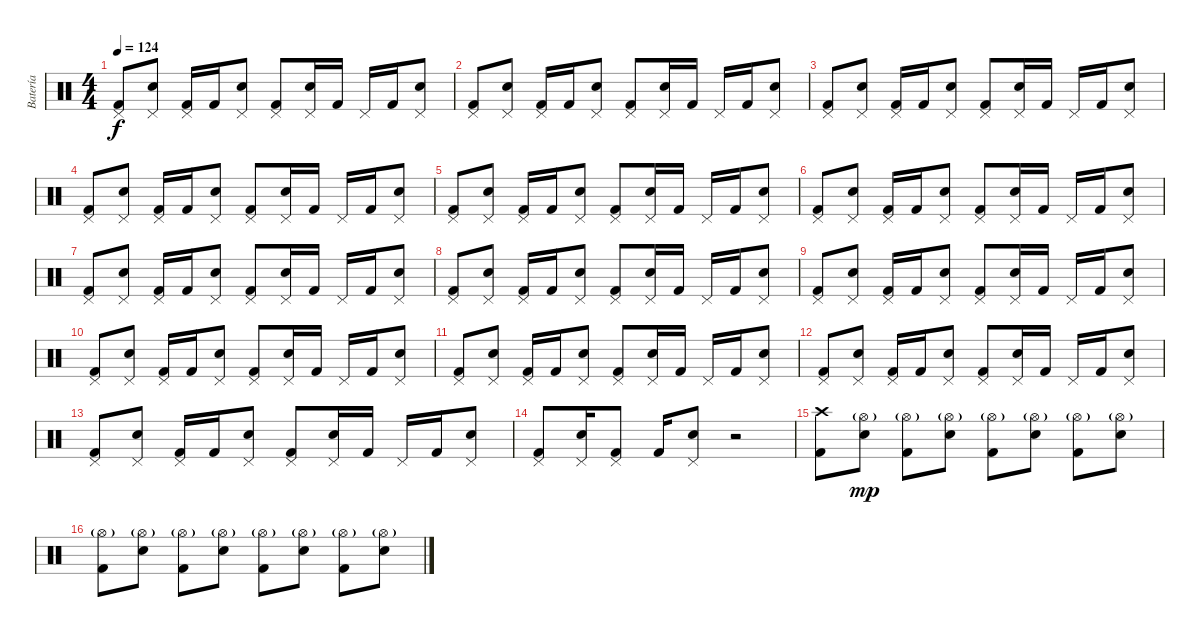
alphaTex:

\track ("Batería" "Batería") {instrument percussion}
\staff {score}
\articulation defaults
\ts (4 4)
\tempo 124
\clef neutral
\ks c
("Pedal Hi-Hat (hit)" "Kick (hit) 2").8{dy f} ("Pedal Hi-Hat (hit)" "Snare (hit) 2").8 ("Pedal Hi-Hat (hit)" "Kick (hit) 2").16 "Kick (hit) 2".16 ("Pedal Hi-Hat (hit)" "Snare (hit) 2").8 ("Pedal Hi-Hat (hit)" "Kick (hit) 2").8 ("Pedal Hi-Hat (hit)" "Snare (hit) 2").16 "Kick (hit) 2".16 "Pedal Hi-Hat (hit)".16 "Kick (hit) 2".16 ("Pedal Hi-Hat (hit)" "Snare (hit) 2").8 |
("Pedal Hi-Hat (hit)" "Kick (hit) 2").8 ("Pedal Hi-Hat (hit)" "Snare (hit) 2").8 ("Pedal Hi-Hat (hit)" "Kick (hit) 2").16 "Kick (hit) 2".16 ("Pedal Hi-Hat (hit)" "Snare (hit) 2").8 ("Pedal Hi-Hat (hit)" "Kick (hit) 2").8 ("Pedal Hi-Hat (hit)" "Snare (hit) 2").16 "Kick (hit) 2".16 "Pedal Hi-Hat (hit)".16 "Kick (hit) 2".16 ("Pedal Hi-Hat (hit)" "Snare (hit) 2").8 |
("Pedal Hi-Hat (hit)" "Kick (hit) 2").8 ("Pedal Hi-Hat (hit)" "Snare (hit) 2").8 ("Pedal Hi-Hat (hit)" "Kick (hit) 2").16 "Kick (hit) 2".16 ("Pedal Hi-Hat (hit)" "Snare (hit) 2").8 ("Pedal Hi-Hat (hit)" "Kick (hit) 2").8 ("Pedal Hi-Hat (hit)" "Snare (hit) 2").16 "Kick (hit) 2".16 "Pedal Hi-Hat (hit)".16 "Kick (hit) 2".16 ("Pedal Hi-Hat (hit)" "Snare (hit) 2").8 |
("Pedal Hi-Hat (hit)" "Kick (hit) 2").8 ("Pedal Hi-Hat (hit)" "Snare (hit) 2").8 ("Pedal Hi-Hat (hit)" "Kick (hit) 2").16 "Kick (hit) 2".16 ("Pedal Hi-Hat (hit)" "Snare (hit) 2").8 ("Pedal Hi-Hat (hit)" "Kick (hit) 2").8 ("Pedal Hi-Hat (hit)" "Snare (hit) 2").16 "Kick (hit) 2".16 "Pedal Hi-Hat (hit)".16 "Kick (hit) 2".16 ("Pedal Hi-Hat (hit)" "Snare (hit) 2").8 |
("Pedal Hi-Hat (hit)" "Kick (hit) 2").8 ("Pedal Hi-Hat (hit)" "Snare (hit) 2").8 ("Pedal Hi-Hat (hit)" "Kick (hit) 2").16 "Kick (hit) 2".16 ("Pedal Hi-Hat (hit)" "Snare (hit) 2").8 ("Pedal Hi-Hat (hit)" "Kick (hit) 2").8 ("Pedal Hi-Hat (hit)" "Snare (hit) 2").16 "Kick (hit) 2".16 "Pedal Hi-Hat (hit)".16 "Kick (hit) 2".16 ("Pedal Hi-Hat (hit)" "Snare (hit) 2").8 |
("Pedal Hi-Hat (hit)" "Kick (hit) 2").8 ("Pedal Hi-Hat (hit)" "Snare (hit) 2").8 ("Pedal Hi-Hat (hit)" "Kick (hit) 2").16 "Kick (hit) 2".16 ("Pedal Hi-Hat (hit)" "Snare (hit) 2").8 ("Pedal Hi-Hat (hit)" "Kick (hit) 2").8 ("Pedal Hi-Hat (hit)" "Snare (hit) 2").16 "Kick (hit) 2".16 "Pedal Hi-Hat (hit)".16 "Kick (hit) 2".16 ("Pedal Hi-Hat (hit)" "Snare (hit) 2").8 |
("Pedal Hi-Hat (hit)" "Kick (hit) 2").8 ("Pedal Hi-Hat (hit)" "Snare (hit) 2").8 ("Pedal Hi-Hat (hit)" "Kick (hit) 2").16 "Kick (hit) 2".16 ("Pedal Hi-Hat (hit)" "Snare (hit) 2").8 ("Pedal Hi-Hat (hit)" "Kick (hit) 2").8 ("Pedal Hi-Hat (hit)" "Snare (hit) 2").16 "Kick (hit) 2".16 "Pedal Hi-Hat (hit)".16 "Kick (hit) 2".16 ("Pedal Hi-Hat (hit)" "Snare (hit) 2").8 |
("Pedal Hi-Hat (hit)" "Kick (hit) 2").8 ("Pedal Hi-Hat (hit)" "Snare (hit) 2").8 ("Pedal Hi-Hat (hit)" "Kick (hit) 2").16 "Kick (hit) 2".16 ("Pedal Hi-Hat (hit)" "Snare (hit) 2").8 ("Pedal Hi-Hat (hit)" "Kick (hit) 2").8 ("Pedal Hi-Hat (hit)" "Snare (hit) 2").16 "Kick (hit) 2".16 "Pedal Hi-Hat (hit)".16 "Kick (hit) 2".16 ("Pedal Hi-Hat (hit)" "Snare (hit) 2").8 |
("Pedal Hi-Hat (hit)" "Kick (hit) 2").8 ("Pedal Hi-Hat (hit)" "Snare (hit) 2").8 ("Pedal Hi-Hat (hit)" "Kick (hit) 2").16 "Kick (hit) 2".16 ("Pedal Hi-Hat (hit)" "Snare (hit) 2").8 ("Pedal Hi-Hat (hit)" "Kick (hit) 2").8 ("Pedal Hi-Hat (hit)" "Snare (hit) 2").16 "Kick (hit) 2".16 "Pedal Hi-Hat (hit)".16 "Kick (hit) 2".16 ("Pedal Hi-Hat (hit)" "Snare (hit) 2").8 |
("Pedal Hi-Hat (hit)" "Kick (hit) 2").8 ("Pedal Hi-Hat (hit)" "Snare (hit) 2").8 ("Pedal Hi-Hat (hit)" "Kick (hit) 2").16 "Kick (hit) 2".16 ("Pedal Hi-Hat (hit)" "Snare (hit) 2").8 ("Pedal Hi-Hat (hit)" "Kick (hit) 2").8 ("Pedal Hi-Hat (hit)" "Snare (hit) 2").16 "Kick (hit) 2".16 "Pedal Hi-Hat (hit)".16 "Kick (hit) 2".16 ("Pedal Hi-Hat (hit)" "Snare (hit) 2").8 |
("Pedal Hi-Hat (hit)" "Kick (hit) 2").8 ("Pedal Hi-Hat (hit)" "Snare (hit) 2").8 ("Pedal Hi-Hat (hit)" "Kick (hit) 2").16 "Kick (hit) 2".16 ("Pedal Hi-Hat (hit)" "Snare (hit) 2").8 ("Pedal Hi-Hat (hit)" "Kick (hit) 2").8 ("Pedal Hi-Hat (hit)" "Snare (hit) 2").16 "Kick (hit) 2".16 "Pedal Hi-Hat (hit)".16 "Kick (hit) 2".16 ("Pedal Hi-Hat (hit)" "Snare (hit) 2").8 |
("Pedal Hi-Hat (hit)" "Kick (hit) 2").8 ("Pedal Hi-Hat (hit)" "Snare (hit) 2").8 ("Pedal Hi-Hat (hit)" "Kick (hit) 2").16 "Kick (hit) 2".16 ("Pedal Hi-Hat (hit)" "Snare (hit) 2").8 ("Pedal Hi-Hat (hit)" "Kick (hit) 2").8 ("Pedal Hi-Hat (hit)" "Snare (hit) 2").16 "Kick (hit) 2".16 "Pedal Hi-Hat (hit)".16 "Kick (hit) 2".16 ("Pedal Hi-Hat (hit)" "Snare (hit) 2").8 |
("Pedal Hi-Hat (hit)" "Kick (hit) 2").8 ("Pedal Hi-Hat (hit)" "Snare (hit) 2").8 ("Pedal Hi-Hat (hit)" "Kick (hit) 2").16 "Kick (hit) 2".16 ("Pedal Hi-Hat (hit)" "Snare (hit) 2").8 ("Pedal Hi-Hat (hit)" "Kick (hit) 2").8 ("Pedal Hi-Hat (hit)" "Snare (hit) 2").16 "Kick (hit) 2".16 "Pedal Hi-Hat (hit)".16 "Kick (hit) 2".16 ("Pedal Hi-Hat (hit)" "Snare (hit) 2").8 |
("Pedal Hi-Hat (hit)" "Kick (hit) 2").8 ("Pedal Hi-Hat (hit)" "Snare (hit) 2").16 ("Pedal Hi-Hat (hit)" "Kick (hit) 2").8 "Kick (hit) 2".16 ("Pedal Hi-Hat (hit)" "Snare (hit) 2").8 r.2 |
("Crash high (hit)" "Kick (hit) 2").8 ("Hi-Hat (open)"{g} "Snare (hit) 2").8{dy mp} ("Hi-Hat (open)"{g} "Kick (hit) 2").8 ("Hi-Hat (open)"{g} "Snare (hit) 2").8 ("Hi-Hat (open)"{g} "Kick (hit) 2").8 ("Hi-Hat (open)"{g} "Snare (hit) 2").8 ("Hi-Hat (open)"{g} "Kick (hit) 2").8 ("Hi-Hat (open)"{g} "Snare (hit) 2").8 |
("Hi-Hat (open)"{g} "Kick (hit) 2").8 ("Hi-Hat (open)"{g} "Snare (hit) 2").8 ("Hi-Hat (open)"{g} "Kick (hit) 2").8 ("Hi-Hat (open)"{g} "Snare (hit) 2").8 ("Hi-Hat (open)"{g} "Kick (hit) 2").8 ("Hi-Hat (open)"{g} "Snare (hit) 2").8 ("Hi-Hat (open)"{g} "Kick (hit) 2").8 ("Hi-Hat (open)"{g} "Snare (hit) 2").8
